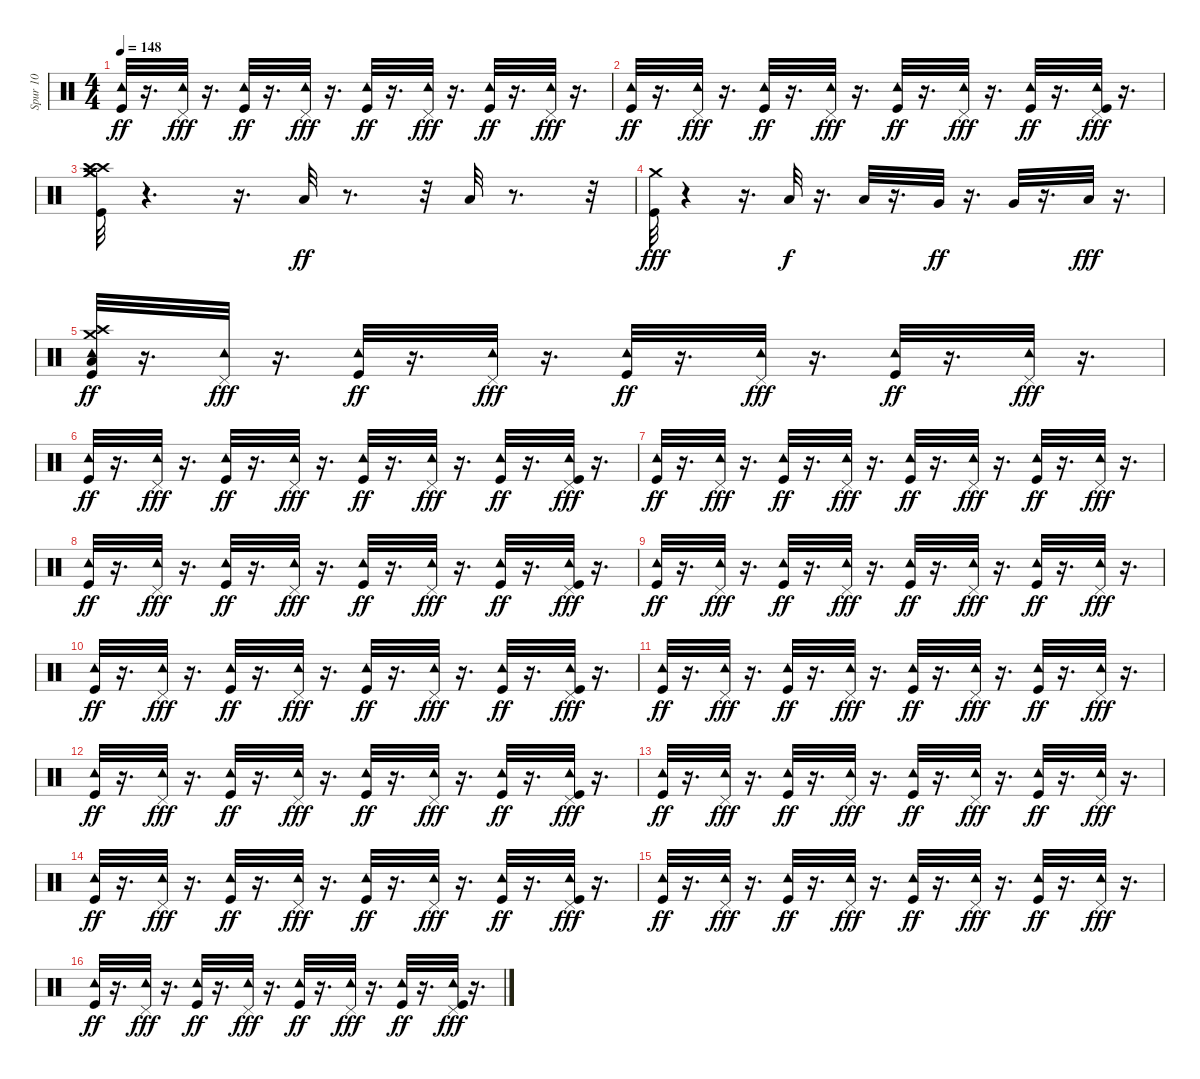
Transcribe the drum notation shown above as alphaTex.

\track ("Spur 10" "Spur 10") {instrument percussion}
\staff {score}
\articulation defaults
\ts (4 4)
\tempo 148
\clef neutral
\ks c
("Kick (hit)" "Tambourine (hit)").32{dy ff} r.16{d} ("Tambourine (hit)" "Pedal Hi-Hat (hit)").32{dy fff} r.16{d} ("Kick (hit)" "Tambourine (hit)").32{dy ff} r.16{d} ("Tambourine (hit)" "Pedal Hi-Hat (hit)").32{dy fff} r.16{d} ("Kick (hit)" "Tambourine (hit)").32{dy ff} r.16{d} ("Tambourine (hit)" "Pedal Hi-Hat (hit)").32{dy fff} r.16{d} ("Kick (hit)" "Tambourine (hit)").32{dy ff} r.16{d} ("Tambourine (hit)" "Pedal Hi-Hat (hit)").32{dy fff} r.16{d} |
("Kick (hit)" "Tambourine (hit)").32{dy ff} r.16{d} ("Tambourine (hit)" "Pedal Hi-Hat (hit)").32{dy fff} r.16{d} ("Kick (hit)" "Tambourine (hit)").32{dy ff} r.16{d} ("Tambourine (hit)" "Pedal Hi-Hat (hit)").32{dy fff} r.16{d} ("Kick (hit)" "Tambourine (hit)").32{dy ff} r.16{d} ("Tambourine (hit)" "Pedal Hi-Hat (hit)").32{dy fff} r.16{d} ("Kick (hit)" "Tambourine (hit)").32{dy ff} r.16{d} ("Kick (hit)" "Tambourine (hit)" "Pedal Hi-Hat (hit)").32{dy fff} r.16{d} |
("Kick (hit)" "Crash high (hit)" "Crash medium (hit)" "Crash high (hit)" "Crash medium (hit)").32 r.4{d} r.16{d} "Low Floor Tom (hit)".32{dy ff} r.8{d} r.32 "Low Floor Tom (hit)".32 r.8{d} r.32 |
("Kick (hit)" "Crash medium (hit)").32{dy fff} r.4 r.16{d} "Low Tom (hit)".32{dy f} r.16{d} "Low Tom (hit)".32 r.16{d} "Very Low Tom (hit)".32{dy ff} r.16{d} "Very Low Tom (hit)".32 r.16{d} "Low Floor Tom (hit)".32{dy fff} r.16{d} |
("Kick (hit)" "Low Floor Tom (hit)" "Tambourine (hit)" "Crash high (hit)" "Crash medium (hit)").32{dy ff} r.16{d} ("Tambourine (hit)" "Pedal Hi-Hat (hit)").32{dy fff} r.16{d} ("Kick (hit)" "Tambourine (hit)").32{dy ff} r.16{d} ("Tambourine (hit)" "Pedal Hi-Hat (hit)").32{dy fff} r.16{d} ("Kick (hit)" "Tambourine (hit)").32{dy ff} r.16{d} ("Tambourine (hit)" "Pedal Hi-Hat (hit)").32{dy fff} r.16{d} ("Kick (hit)" "Tambourine (hit)").32{dy ff} r.16{d} ("Tambourine (hit)" "Pedal Hi-Hat (hit)").32{dy fff} r.16{d} |
("Kick (hit)" "Tambourine (hit)").32{dy ff} r.16{d} ("Tambourine (hit)" "Pedal Hi-Hat (hit)").32{dy fff} r.16{d} ("Kick (hit)" "Tambourine (hit)").32{dy ff} r.16{d} ("Tambourine (hit)" "Pedal Hi-Hat (hit)").32{dy fff} r.16{d} ("Kick (hit)" "Tambourine (hit)").32{dy ff} r.16{d} ("Tambourine (hit)" "Pedal Hi-Hat (hit)").32{dy fff} r.16{d} ("Kick (hit)" "Tambourine (hit)").32{dy ff} r.16{d} ("Kick (hit)" "Tambourine (hit)" "Pedal Hi-Hat (hit)").32{dy fff} r.16{d} |
("Kick (hit)" "Tambourine (hit)").32{dy ff} r.16{d} ("Tambourine (hit)" "Pedal Hi-Hat (hit)").32{dy fff} r.16{d} ("Kick (hit)" "Tambourine (hit)").32{dy ff} r.16{d} ("Tambourine (hit)" "Pedal Hi-Hat (hit)").32{dy fff} r.16{d} ("Kick (hit)" "Tambourine (hit)").32{dy ff} r.16{d} ("Tambourine (hit)" "Pedal Hi-Hat (hit)").32{dy fff} r.16{d} ("Kick (hit)" "Tambourine (hit)").32{dy ff} r.16{d} ("Tambourine (hit)" "Pedal Hi-Hat (hit)").32{dy fff} r.16{d} |
("Kick (hit)" "Tambourine (hit)").32{dy ff} r.16{d} ("Tambourine (hit)" "Pedal Hi-Hat (hit)").32{dy fff} r.16{d} ("Kick (hit)" "Tambourine (hit)").32{dy ff} r.16{d} ("Tambourine (hit)" "Pedal Hi-Hat (hit)").32{dy fff} r.16{d} ("Kick (hit)" "Tambourine (hit)").32{dy ff} r.16{d} ("Tambourine (hit)" "Pedal Hi-Hat (hit)").32{dy fff} r.16{d} ("Kick (hit)" "Tambourine (hit)").32{dy ff} r.16{d} ("Kick (hit)" "Tambourine (hit)" "Pedal Hi-Hat (hit)").32{dy fff} r.16{d} |
("Kick (hit)" "Tambourine (hit)").32{dy ff} r.16{d} ("Tambourine (hit)" "Pedal Hi-Hat (hit)").32{dy fff} r.16{d} ("Kick (hit)" "Tambourine (hit)").32{dy ff} r.16{d} ("Tambourine (hit)" "Pedal Hi-Hat (hit)").32{dy fff} r.16{d} ("Kick (hit)" "Tambourine (hit)").32{dy ff} r.16{d} ("Tambourine (hit)" "Pedal Hi-Hat (hit)").32{dy fff} r.16{d} ("Kick (hit)" "Tambourine (hit)").32{dy ff} r.16{d} ("Tambourine (hit)" "Pedal Hi-Hat (hit)").32{dy fff} r.16{d} |
("Kick (hit)" "Tambourine (hit)").32{dy ff} r.16{d} ("Tambourine (hit)" "Pedal Hi-Hat (hit)").32{dy fff} r.16{d} ("Kick (hit)" "Tambourine (hit)").32{dy ff} r.16{d} ("Tambourine (hit)" "Pedal Hi-Hat (hit)").32{dy fff} r.16{d} ("Kick (hit)" "Tambourine (hit)").32{dy ff} r.16{d} ("Tambourine (hit)" "Pedal Hi-Hat (hit)").32{dy fff} r.16{d} ("Kick (hit)" "Tambourine (hit)").32{dy ff} r.16{d} ("Kick (hit)" "Tambourine (hit)" "Pedal Hi-Hat (hit)").32{dy fff} r.16{d} |
("Kick (hit)" "Tambourine (hit)").32{dy ff} r.16{d} ("Tambourine (hit)" "Pedal Hi-Hat (hit)").32{dy fff} r.16{d} ("Kick (hit)" "Tambourine (hit)").32{dy ff} r.16{d} ("Tambourine (hit)" "Pedal Hi-Hat (hit)").32{dy fff} r.16{d} ("Kick (hit)" "Tambourine (hit)").32{dy ff} r.16{d} ("Tambourine (hit)" "Pedal Hi-Hat (hit)").32{dy fff} r.16{d} ("Kick (hit)" "Tambourine (hit)").32{dy ff} r.16{d} ("Tambourine (hit)" "Pedal Hi-Hat (hit)").32{dy fff} r.16{d} |
("Kick (hit)" "Tambourine (hit)").32{dy ff} r.16{d} ("Tambourine (hit)" "Pedal Hi-Hat (hit)").32{dy fff} r.16{d} ("Kick (hit)" "Tambourine (hit)").32{dy ff} r.16{d} ("Tambourine (hit)" "Pedal Hi-Hat (hit)").32{dy fff} r.16{d} ("Kick (hit)" "Tambourine (hit)").32{dy ff} r.16{d} ("Tambourine (hit)" "Pedal Hi-Hat (hit)").32{dy fff} r.16{d} ("Kick (hit)" "Tambourine (hit)").32{dy ff} r.16{d} ("Kick (hit)" "Tambourine (hit)" "Pedal Hi-Hat (hit)").32{dy fff} r.16{d} |
("Kick (hit)" "Tambourine (hit)").32{dy ff} r.16{d} ("Tambourine (hit)" "Pedal Hi-Hat (hit)").32{dy fff} r.16{d} ("Kick (hit)" "Tambourine (hit)").32{dy ff} r.16{d} ("Tambourine (hit)" "Pedal Hi-Hat (hit)").32{dy fff} r.16{d} ("Kick (hit)" "Tambourine (hit)").32{dy ff} r.16{d} ("Tambourine (hit)" "Pedal Hi-Hat (hit)").32{dy fff} r.16{d} ("Kick (hit)" "Tambourine (hit)").32{dy ff} r.16{d} ("Tambourine (hit)" "Pedal Hi-Hat (hit)").32{dy fff} r.16{d} |
("Kick (hit)" "Tambourine (hit)").32{dy ff} r.16{d} ("Tambourine (hit)" "Pedal Hi-Hat (hit)").32{dy fff} r.16{d} ("Kick (hit)" "Tambourine (hit)").32{dy ff} r.16{d} ("Tambourine (hit)" "Pedal Hi-Hat (hit)").32{dy fff} r.16{d} ("Kick (hit)" "Tambourine (hit)").32{dy ff} r.16{d} ("Tambourine (hit)" "Pedal Hi-Hat (hit)").32{dy fff} r.16{d} ("Kick (hit)" "Tambourine (hit)").32{dy ff} r.16{d} ("Kick (hit)" "Tambourine (hit)" "Pedal Hi-Hat (hit)").32{dy fff} r.16{d} |
("Kick (hit)" "Tambourine (hit)").32{dy ff} r.16{d} ("Tambourine (hit)" "Pedal Hi-Hat (hit)").32{dy fff} r.16{d} ("Kick (hit)" "Tambourine (hit)").32{dy ff} r.16{d} ("Tambourine (hit)" "Pedal Hi-Hat (hit)").32{dy fff} r.16{d} ("Kick (hit)" "Tambourine (hit)").32{dy ff} r.16{d} ("Tambourine (hit)" "Pedal Hi-Hat (hit)").32{dy fff} r.16{d} ("Kick (hit)" "Tambourine (hit)").32{dy ff} r.16{d} ("Tambourine (hit)" "Pedal Hi-Hat (hit)").32{dy fff} r.16{d} |
("Kick (hit)" "Tambourine (hit)").32{dy ff} r.16{d} ("Tambourine (hit)" "Pedal Hi-Hat (hit)").32{dy fff} r.16{d} ("Kick (hit)" "Tambourine (hit)").32{dy ff} r.16{d} ("Tambourine (hit)" "Pedal Hi-Hat (hit)").32{dy fff} r.16{d} ("Kick (hit)" "Tambourine (hit)").32{dy ff} r.16{d} ("Tambourine (hit)" "Pedal Hi-Hat (hit)").32{dy fff} r.16{d} ("Kick (hit)" "Tambourine (hit)").32{dy ff} r.16{d} ("Kick (hit)" "Tambourine (hit)" "Pedal Hi-Hat (hit)").32{dy fff} r.16{d}
